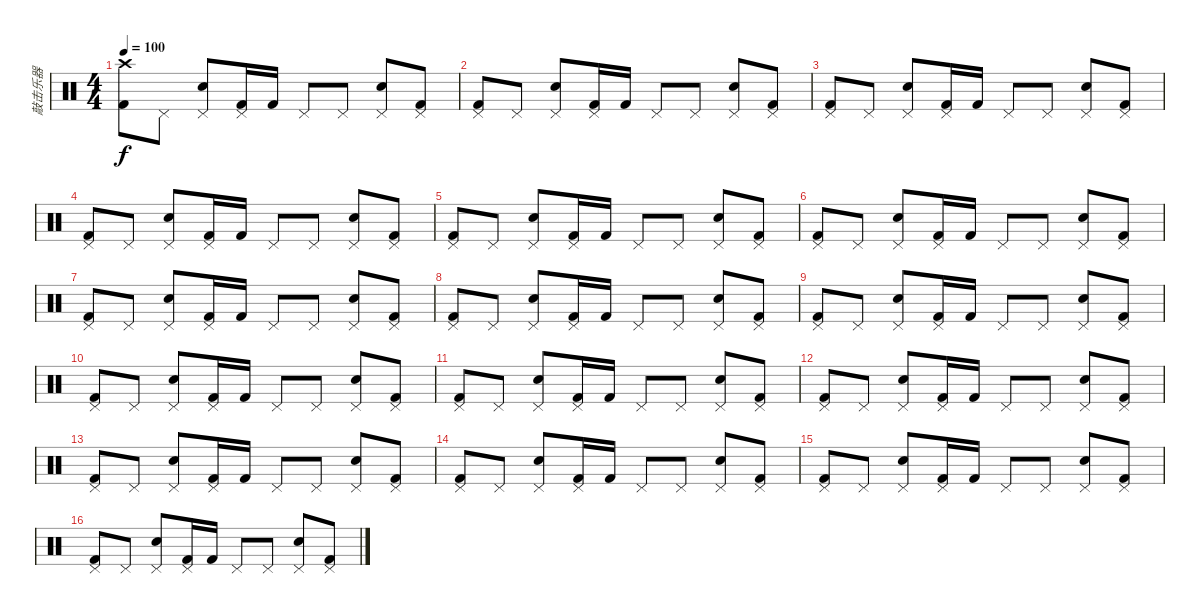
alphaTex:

\track ("敲击乐器" "敲击乐器") {instrument percussion}
\staff {score}
\articulation defaults
\ts (4 4)
\tempo 100
\clef neutral
\ks c
("Crash high (hit)" "Kick (hit) 2").8{dy f} "Pedal Hi-Hat (hit)".8 ("Pedal Hi-Hat (hit)" "Electric Snare (hit)").8 ("Pedal Hi-Hat (hit)" "Kick (hit) 2").16 "Kick (hit) 2".16 "Pedal Hi-Hat (hit)".8 "Pedal Hi-Hat (hit)".8 ("Pedal Hi-Hat (hit)" "Electric Snare (hit)").8 ("Pedal Hi-Hat (hit)" "Kick (hit) 2").8 |
("Pedal Hi-Hat (hit)" "Kick (hit) 2").8 "Pedal Hi-Hat (hit)".8 ("Pedal Hi-Hat (hit)" "Electric Snare (hit)").8 ("Pedal Hi-Hat (hit)" "Kick (hit) 2").16 "Kick (hit) 2".16 "Pedal Hi-Hat (hit)".8 "Pedal Hi-Hat (hit)".8 ("Pedal Hi-Hat (hit)" "Electric Snare (hit)").8 ("Pedal Hi-Hat (hit)" "Kick (hit) 2").8 |
("Pedal Hi-Hat (hit)" "Kick (hit) 2").8 "Pedal Hi-Hat (hit)".8 ("Pedal Hi-Hat (hit)" "Electric Snare (hit)").8 ("Pedal Hi-Hat (hit)" "Kick (hit) 2").16 "Kick (hit) 2".16 "Pedal Hi-Hat (hit)".8 "Pedal Hi-Hat (hit)".8 ("Pedal Hi-Hat (hit)" "Electric Snare (hit)").8 ("Pedal Hi-Hat (hit)" "Kick (hit) 2").8 |
("Pedal Hi-Hat (hit)" "Kick (hit) 2").8 "Pedal Hi-Hat (hit)".8 ("Pedal Hi-Hat (hit)" "Electric Snare (hit)").8 ("Pedal Hi-Hat (hit)" "Kick (hit) 2").16 "Kick (hit) 2".16 "Pedal Hi-Hat (hit)".8 "Pedal Hi-Hat (hit)".8 ("Pedal Hi-Hat (hit)" "Electric Snare (hit)").8 ("Pedal Hi-Hat (hit)" "Kick (hit) 2").8 |
("Pedal Hi-Hat (hit)" "Kick (hit) 2").8 "Pedal Hi-Hat (hit)".8 ("Pedal Hi-Hat (hit)" "Electric Snare (hit)").8 ("Pedal Hi-Hat (hit)" "Kick (hit) 2").16 "Kick (hit) 2".16 "Pedal Hi-Hat (hit)".8 "Pedal Hi-Hat (hit)".8 ("Pedal Hi-Hat (hit)" "Electric Snare (hit)").8 ("Pedal Hi-Hat (hit)" "Kick (hit) 2").8 |
("Pedal Hi-Hat (hit)" "Kick (hit) 2").8 "Pedal Hi-Hat (hit)".8 ("Pedal Hi-Hat (hit)" "Electric Snare (hit)").8 ("Pedal Hi-Hat (hit)" "Kick (hit) 2").16 "Kick (hit) 2".16 "Pedal Hi-Hat (hit)".8 "Pedal Hi-Hat (hit)".8 ("Pedal Hi-Hat (hit)" "Electric Snare (hit)").8 ("Pedal Hi-Hat (hit)" "Kick (hit) 2").8 |
("Pedal Hi-Hat (hit)" "Kick (hit) 2").8 "Pedal Hi-Hat (hit)".8 ("Pedal Hi-Hat (hit)" "Electric Snare (hit)").8 ("Pedal Hi-Hat (hit)" "Kick (hit) 2").16 "Kick (hit) 2".16 "Pedal Hi-Hat (hit)".8 "Pedal Hi-Hat (hit)".8 ("Pedal Hi-Hat (hit)" "Electric Snare (hit)").8 ("Pedal Hi-Hat (hit)" "Kick (hit) 2").8 |
("Pedal Hi-Hat (hit)" "Kick (hit) 2").8 "Pedal Hi-Hat (hit)".8 ("Pedal Hi-Hat (hit)" "Electric Snare (hit)").8 ("Pedal Hi-Hat (hit)" "Kick (hit) 2").16 "Kick (hit) 2".16 "Pedal Hi-Hat (hit)".8 "Pedal Hi-Hat (hit)".8 ("Pedal Hi-Hat (hit)" "Electric Snare (hit)").8 ("Pedal Hi-Hat (hit)" "Kick (hit) 2").8 |
("Pedal Hi-Hat (hit)" "Kick (hit) 2").8 "Pedal Hi-Hat (hit)".8 ("Pedal Hi-Hat (hit)" "Electric Snare (hit)").8 ("Pedal Hi-Hat (hit)" "Kick (hit) 2").16 "Kick (hit) 2".16 "Pedal Hi-Hat (hit)".8 "Pedal Hi-Hat (hit)".8 ("Pedal Hi-Hat (hit)" "Electric Snare (hit)").8 ("Pedal Hi-Hat (hit)" "Kick (hit) 2").8 |
("Pedal Hi-Hat (hit)" "Kick (hit) 2").8 "Pedal Hi-Hat (hit)".8 ("Pedal Hi-Hat (hit)" "Electric Snare (hit)").8 ("Pedal Hi-Hat (hit)" "Kick (hit) 2").16 "Kick (hit) 2".16 "Pedal Hi-Hat (hit)".8 "Pedal Hi-Hat (hit)".8 ("Pedal Hi-Hat (hit)" "Electric Snare (hit)").8 ("Pedal Hi-Hat (hit)" "Kick (hit) 2").8 |
("Pedal Hi-Hat (hit)" "Kick (hit) 2").8 "Pedal Hi-Hat (hit)".8 ("Pedal Hi-Hat (hit)" "Electric Snare (hit)").8 ("Pedal Hi-Hat (hit)" "Kick (hit) 2").16 "Kick (hit) 2".16 "Pedal Hi-Hat (hit)".8 "Pedal Hi-Hat (hit)".8 ("Pedal Hi-Hat (hit)" "Electric Snare (hit)").8 ("Pedal Hi-Hat (hit)" "Kick (hit) 2").8 |
("Pedal Hi-Hat (hit)" "Kick (hit) 2").8 "Pedal Hi-Hat (hit)".8 ("Pedal Hi-Hat (hit)" "Electric Snare (hit)").8 ("Pedal Hi-Hat (hit)" "Kick (hit) 2").16 "Kick (hit) 2".16 "Pedal Hi-Hat (hit)".8 "Pedal Hi-Hat (hit)".8 ("Pedal Hi-Hat (hit)" "Electric Snare (hit)").8 ("Pedal Hi-Hat (hit)" "Kick (hit) 2").8 |
("Pedal Hi-Hat (hit)" "Kick (hit) 2").8 "Pedal Hi-Hat (hit)".8 ("Pedal Hi-Hat (hit)" "Electric Snare (hit)").8 ("Pedal Hi-Hat (hit)" "Kick (hit) 2").16 "Kick (hit) 2".16 "Pedal Hi-Hat (hit)".8 "Pedal Hi-Hat (hit)".8 ("Pedal Hi-Hat (hit)" "Electric Snare (hit)").8 ("Pedal Hi-Hat (hit)" "Kick (hit) 2").8 |
("Pedal Hi-Hat (hit)" "Kick (hit) 2").8 "Pedal Hi-Hat (hit)".8 ("Pedal Hi-Hat (hit)" "Electric Snare (hit)").8 ("Pedal Hi-Hat (hit)" "Kick (hit) 2").16 "Kick (hit) 2".16 "Pedal Hi-Hat (hit)".8 "Pedal Hi-Hat (hit)".8 ("Pedal Hi-Hat (hit)" "Electric Snare (hit)").8 ("Pedal Hi-Hat (hit)" "Kick (hit) 2").8 |
("Pedal Hi-Hat (hit)" "Kick (hit) 2").8 "Pedal Hi-Hat (hit)".8 ("Pedal Hi-Hat (hit)" "Electric Snare (hit)").8 ("Pedal Hi-Hat (hit)" "Kick (hit) 2").16 "Kick (hit) 2".16 "Pedal Hi-Hat (hit)".8 "Pedal Hi-Hat (hit)".8 ("Pedal Hi-Hat (hit)" "Electric Snare (hit)").8 ("Pedal Hi-Hat (hit)" "Kick (hit) 2").8 |
("Pedal Hi-Hat (hit)" "Kick (hit) 2").8 "Pedal Hi-Hat (hit)".8 ("Pedal Hi-Hat (hit)" "Electric Snare (hit)").8 ("Pedal Hi-Hat (hit)" "Kick (hit) 2").16 "Kick (hit) 2".16 "Pedal Hi-Hat (hit)".8 "Pedal Hi-Hat (hit)".8 ("Pedal Hi-Hat (hit)" "Electric Snare (hit)").8 ("Pedal Hi-Hat (hit)" "Kick (hit) 2").8
